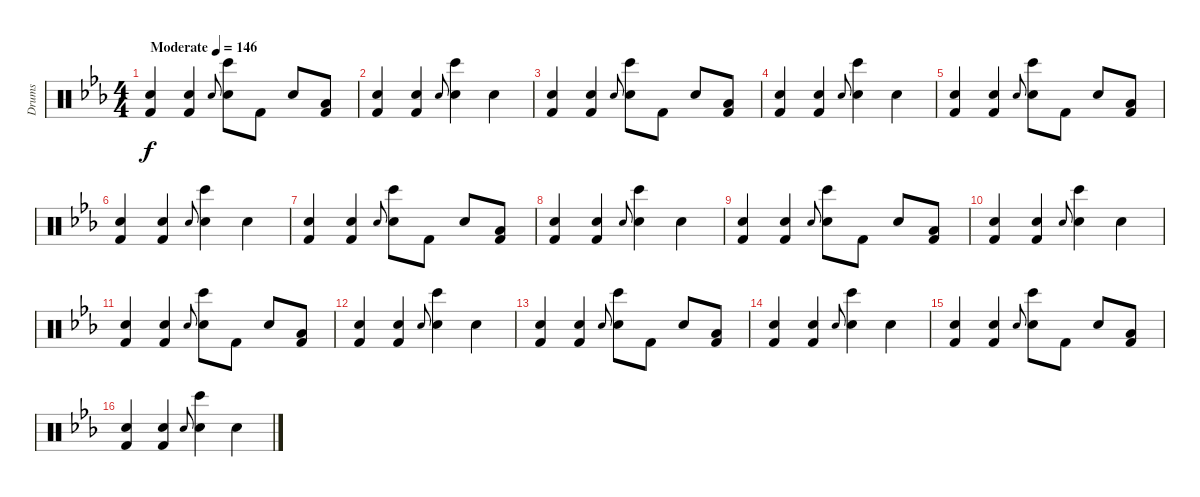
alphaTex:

\track ("Drums" "Drums") {instrument percussion}
\staff {score}
\articulation defaults
\ts (4 4)
\tempo (146 "Moderate")
\clef neutral
\ks cminor
("Hand Clap (hit)" "Kick (hit) 2").4{dy f} ("Hand Clap (hit)" "Kick (hit) 2").4 "Electric Snare (hit)".8{gr onbeat} ("Hand Clap (hit)" "Bongo High (hit)").8 "Kick (hit) 2".8 "Hand Clap (hit)".8 ("Low Floor Tom (hit)" "Kick (hit) 2").8 |
("Hand Clap (hit)" "Kick (hit) 2").4 ("Hand Clap (hit)" "Kick (hit) 2").4 "Electric Snare (hit)".8{gr onbeat} ("Hand Clap (hit)" "Bongo High (hit)").4 "Hand Clap (hit)".4 |
("Hand Clap (hit)" "Kick (hit) 2").4 ("Hand Clap (hit)" "Kick (hit) 2").4 "Electric Snare (hit)".8{gr onbeat} ("Hand Clap (hit)" "Bongo High (hit)").8 "Kick (hit) 2".8 "Hand Clap (hit)".8 ("Low Floor Tom (hit)" "Kick (hit) 2").8 |
("Hand Clap (hit)" "Kick (hit) 2").4 ("Hand Clap (hit)" "Kick (hit) 2").4 "Electric Snare (hit)".8{gr onbeat} ("Hand Clap (hit)" "Bongo High (hit)").4 "Hand Clap (hit)".4 |
("Hand Clap (hit)" "Kick (hit) 2").4 ("Hand Clap (hit)" "Kick (hit) 2").4 "Electric Snare (hit)".8{gr onbeat} ("Hand Clap (hit)" "Bongo High (hit)").8 "Kick (hit) 2".8 "Hand Clap (hit)".8 ("Low Floor Tom (hit)" "Kick (hit) 2").8 |
("Hand Clap (hit)" "Kick (hit) 2").4 ("Hand Clap (hit)" "Kick (hit) 2").4 "Electric Snare (hit)".8{gr onbeat} ("Hand Clap (hit)" "Bongo High (hit)").4 "Hand Clap (hit)".4 |
("Hand Clap (hit)" "Kick (hit) 2").4 ("Hand Clap (hit)" "Kick (hit) 2").4 "Electric Snare (hit)".8{gr onbeat} ("Hand Clap (hit)" "Bongo High (hit)").8 "Kick (hit) 2".8 "Hand Clap (hit)".8 ("Low Floor Tom (hit)" "Kick (hit) 2").8 |
("Hand Clap (hit)" "Kick (hit) 2").4 ("Hand Clap (hit)" "Kick (hit) 2").4 "Electric Snare (hit)".8{gr onbeat} ("Hand Clap (hit)" "Bongo High (hit)").4 "Hand Clap (hit)".4 |
("Hand Clap (hit)" "Kick (hit) 2").4 ("Hand Clap (hit)" "Kick (hit) 2").4 "Electric Snare (hit)".8{gr onbeat} ("Hand Clap (hit)" "Bongo High (hit)").8 "Kick (hit) 2".8 "Hand Clap (hit)".8 ("Low Floor Tom (hit)" "Kick (hit) 2").8 |
("Hand Clap (hit)" "Kick (hit) 2").4 ("Hand Clap (hit)" "Kick (hit) 2").4 "Electric Snare (hit)".8{gr onbeat} ("Hand Clap (hit)" "Bongo High (hit)").4 "Hand Clap (hit)".4 |
("Hand Clap (hit)" "Kick (hit) 2").4 ("Hand Clap (hit)" "Kick (hit) 2").4 "Electric Snare (hit)".8{gr onbeat} ("Hand Clap (hit)" "Bongo High (hit)").8 "Kick (hit) 2".8 "Hand Clap (hit)".8 ("Low Floor Tom (hit)" "Kick (hit) 2").8 |
("Hand Clap (hit)" "Kick (hit) 2").4 ("Hand Clap (hit)" "Kick (hit) 2").4 "Electric Snare (hit)".8{gr onbeat} ("Hand Clap (hit)" "Bongo High (hit)").4 "Hand Clap (hit)".4 |
("Hand Clap (hit)" "Kick (hit) 2").4 ("Hand Clap (hit)" "Kick (hit) 2").4 "Electric Snare (hit)".8{gr onbeat} ("Hand Clap (hit)" "Bongo High (hit)").8 "Kick (hit) 2".8 "Hand Clap (hit)".8 ("Low Floor Tom (hit)" "Kick (hit) 2").8 |
("Hand Clap (hit)" "Kick (hit) 2").4 ("Hand Clap (hit)" "Kick (hit) 2").4 "Electric Snare (hit)".8{gr onbeat} ("Hand Clap (hit)" "Bongo High (hit)").4 "Hand Clap (hit)".4 |
("Hand Clap (hit)" "Kick (hit) 2").4 ("Hand Clap (hit)" "Kick (hit) 2").4 "Electric Snare (hit)".8{gr onbeat} ("Hand Clap (hit)" "Bongo High (hit)").8 "Kick (hit) 2".8 "Hand Clap (hit)".8 ("Low Floor Tom (hit)" "Kick (hit) 2").8 |
("Hand Clap (hit)" "Kick (hit) 2").4 ("Hand Clap (hit)" "Kick (hit) 2").4 "Electric Snare (hit)".8{gr onbeat} ("Hand Clap (hit)" "Bongo High (hit)").4 "Hand Clap (hit)".4
